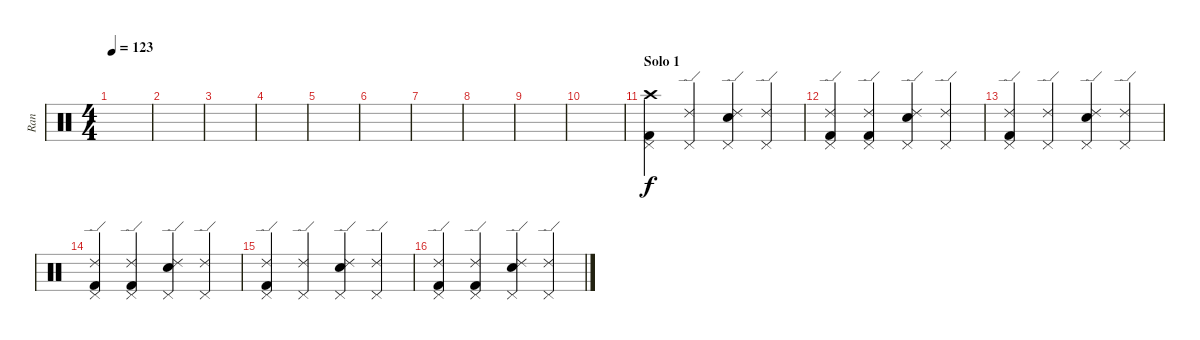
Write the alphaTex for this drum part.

\track ("Ran" "Ran") {instrument percussion}
\staff {score}
\articulation defaults
\ts (4 4)
\tempo 123
\clef neutral
\ks c
|
|
|
|
|
|
|
|
|
|
\section ("" "Solo 1")
("Crash high (hit)" "Pedal Hi-Hat (hit)" "Kick (hit) 2").4 ("Ride (edge) 2" "Pedal Hi-Hat (hit)").4 ("Ride (edge) 2" "Snare (hit) 2" "Pedal Hi-Hat (hit)").4 ("Ride (edge) 2" "Pedal Hi-Hat (hit)").4 |
("Ride (edge) 2" "Pedal Hi-Hat (hit)" "Kick (hit) 2").4 ("Ride (edge) 2" "Pedal Hi-Hat (hit)" "Kick (hit) 2").4 ("Ride (edge) 2" "Snare (hit) 2" "Pedal Hi-Hat (hit)").4 ("Ride (edge) 2" "Pedal Hi-Hat (hit)").4 |
("Ride (edge) 2" "Pedal Hi-Hat (hit)" "Kick (hit) 2").4 ("Ride (edge) 2" "Pedal Hi-Hat (hit)").4 ("Ride (edge) 2" "Snare (hit) 2" "Pedal Hi-Hat (hit)").4 ("Ride (edge) 2" "Pedal Hi-Hat (hit)").4 |
("Ride (edge) 2" "Pedal Hi-Hat (hit)" "Kick (hit) 2").4 ("Ride (edge) 2" "Pedal Hi-Hat (hit)" "Kick (hit) 2").4 ("Ride (edge) 2" "Snare (hit) 2" "Pedal Hi-Hat (hit)").4 ("Ride (edge) 2" "Pedal Hi-Hat (hit)").4 |
("Ride (edge) 2" "Pedal Hi-Hat (hit)" "Kick (hit) 2").4 ("Ride (edge) 2" "Pedal Hi-Hat (hit)").4 ("Ride (edge) 2" "Snare (hit) 2" "Pedal Hi-Hat (hit)").4 ("Ride (edge) 2" "Pedal Hi-Hat (hit)").4 |
("Ride (edge) 2" "Pedal Hi-Hat (hit)" "Kick (hit) 2").4 ("Ride (edge) 2" "Pedal Hi-Hat (hit)" "Kick (hit) 2").4 ("Ride (edge) 2" "Snare (hit) 2" "Pedal Hi-Hat (hit)").4 ("Ride (edge) 2" "Pedal Hi-Hat (hit)").4
